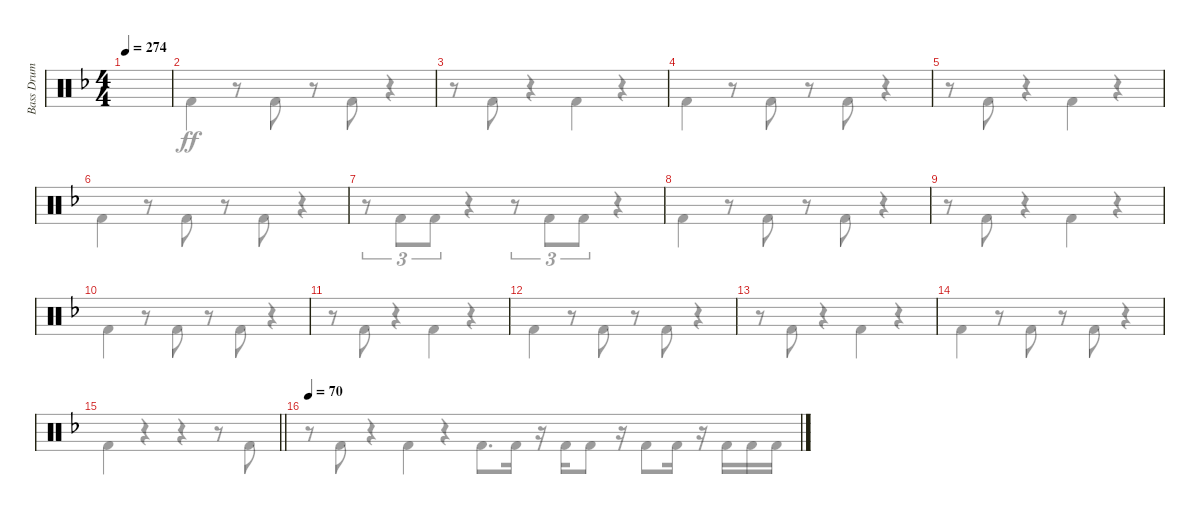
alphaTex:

\track ("Bass Drum" "Bass Drum") {instrument percussion}
\staff {score}
\articulation defaults
\voice
\ts (4 4)
\tempo 274
\clef neutral
\ks dminor
|
|
|
|
|
|
|
|
|
|
|
|
|
|
\barLineRight lightlight
|
\tempo 70
\voice
\clef neutral
\ks dminor
r.8{dy ff} "Kick (hit) 2".8 r.4 "Kick (hit) 2".4 r.4 |
"Kick (hit) 2".4 r.8 "Kick (hit) 2".8 r.8 "Kick (hit) 2".8 r.4 |
r.8 "Kick (hit) 2".8 r.4 "Kick (hit) 2".4 r.4 |
"Kick (hit) 2".4 r.8 "Kick (hit) 2".8 r.8 "Kick (hit) 2".8 r.4 |
r.8 "Kick (hit) 2".8 r.4 "Kick (hit) 2".4 r.4 |
"Kick (hit) 2".4 r.8 "Kick (hit) 2".8 r.8 "Kick (hit) 2".8 r.4 |
r.8{tu (3 2)} "Kick (hit) 2".8{tu (3 2)} "Kick (hit) 2".8{tu (3 2)} r.4 r.8{tu (3 2)} "Kick (hit) 2".8{tu (3 2)} "Kick (hit) 2".8{tu (3 2)} r.4 |
"Kick (hit) 2".4 r.8 "Kick (hit) 2".8 r.8 "Kick (hit) 2".8 r.4 |
r.8 "Kick (hit) 2".8 r.4 "Kick (hit) 2".4 r.4 |
"Kick (hit) 2".4 r.8 "Kick (hit) 2".8 r.8 "Kick (hit) 2".8 r.4 |
r.8 "Kick (hit) 2".8 r.4 "Kick (hit) 2".4 r.4 |
"Kick (hit) 2".4 r.8 "Kick (hit) 2".8 r.8 "Kick (hit) 2".8 r.4 |
r.8 "Kick (hit) 2".8 r.4 "Kick (hit) 2".4 r.4 |
"Kick (hit) 2".4 r.8 "Kick (hit) 2".8 r.8 "Kick (hit) 2".8 r.4 |
\barLineRight lightlight "Kick (hit) 2".4
r.4 r.4 r.8 "Kick (hit) 2".8 |
"Kick (hit) 2".8{d} "Kick (hit) 2".16 r.16 "Kick (hit) 2".16 "Kick (hit) 2".8 r.16 "Kick (hit) 2".8 "Kick (hit) 2".16 r.16 "Kick (hit) 2".16 "Kick (hit) 2".16 "Kick (hit) 2".16
